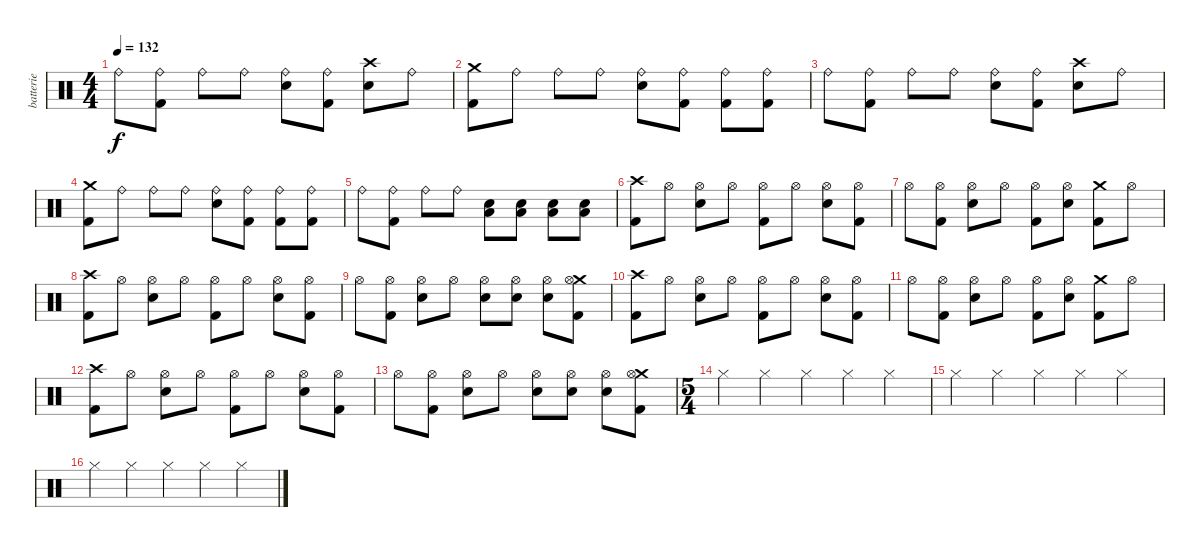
\track ("batterie" "batterie") {instrument percussion}
\staff {score}
\articulation defaults
\ts (4 4)
\tempo 132
\clef neutral
\ks c "Ride (bell)".8{dy f}
("Kick (hit) 2" "Ride (bell)").8 "Ride (bell)".8 "Ride (bell)".8 ("Electric Snare (hit)" "Ride (bell)").8 ("Kick (hit) 2" "Ride (bell)").8 ("Crash high (hit)" "Electric Snare (hit)").8 "Ride (bell)".8 |
("Crash medium (hit)" "Kick (hit) 2").8 "Ride (bell)".8 "Ride (bell)".8 "Ride (bell)".8 ("Electric Snare (hit)" "Ride (bell)").8 ("Kick (hit) 2" "Ride (bell)").8 ("Kick (hit) 2" "Ride (bell)").8 ("Kick (hit) 2" "Ride (bell)").8 |
"Ride (bell)".8 ("Kick (hit) 2" "Ride (bell)").8 "Ride (bell)".8 "Ride (bell)".8 ("Electric Snare (hit)" "Ride (bell)").8 ("Kick (hit) 2" "Ride (bell)").8 ("Crash high (hit)" "Electric Snare (hit)").8 "Ride (bell)".8 |
("Crash medium (hit)" "Kick (hit) 2").8 "Ride (bell)".8 "Ride (bell)".8 "Ride (bell)".8 ("Electric Snare (hit)" "Ride (bell)").8 ("Kick (hit) 2" "Ride (bell)").8 ("Kick (hit) 2" "Ride (bell)").8 ("Kick (hit) 2" "Ride (bell)").8 |
"Ride (bell)".8 ("Kick (hit) 2" "Ride (bell)").8 "Ride (bell)".8 "Ride (bell)".8 ("Low Tom (hit)" "Electric Snare (hit)").8 ("Low Tom (hit)" "Electric Snare (hit)").8 ("Low Tom (hit)" "Electric Snare (hit)").8 ("Low Tom (hit)" "Electric Snare (hit)").8 |
("Crash high (hit)" "Kick (hit) 2").8 "Hi-Hat (open)".8 ("Electric Snare (hit)" "Hi-Hat (open)").8 "Hi-Hat (open)".8 ("Kick (hit) 2" "Hi-Hat (open)").8 "Hi-Hat (open)".8 ("Electric Snare (hit)" "Hi-Hat (open)").8 ("Kick (hit) 2" "Hi-Hat (open)").8 |
"Hi-Hat (open)".8 ("Kick (hit) 2" "Hi-Hat (open)").8 ("Electric Snare (hit)" "Hi-Hat (open)").8 "Hi-Hat (open)".8 ("Kick (hit) 2" "Hi-Hat (open)").8 ("Electric Snare (hit)" "Hi-Hat (open)").8 ("Crash medium (hit)" "Kick (hit) 2").8 "Hi-Hat (open)".8 |
("Crash high (hit)" "Kick (hit) 2").8 "Hi-Hat (open)".8 ("Electric Snare (hit)" "Hi-Hat (open)").8 "Hi-Hat (open)".8 ("Kick (hit) 2" "Hi-Hat (open)").8 "Hi-Hat (open)".8 ("Electric Snare (hit)" "Hi-Hat (open)").8 ("Kick (hit) 2" "Hi-Hat (open)").8 |
"Hi-Hat (open)".8 ("Kick (hit) 2" "Hi-Hat (open)").8 ("Electric Snare (hit)" "Hi-Hat (open)").8 "Hi-Hat (open)".8 ("Electric Snare (hit)" "Hi-Hat (open)").8 ("Electric Snare (hit)" "Hi-Hat (open)").8 ("Electric Snare (hit)" "Hi-Hat (open)").8 ("Crash medium (hit)" "Kick (hit) 2" "Hi-Hat (open)").8 |
("Crash high (hit)" "Kick (hit) 2").8 "Hi-Hat (open)".8 ("Electric Snare (hit)" "Hi-Hat (open)").8 "Hi-Hat (open)".8 ("Kick (hit) 2" "Hi-Hat (open)").8 "Hi-Hat (open)".8 ("Electric Snare (hit)" "Hi-Hat (open)").8 ("Kick (hit) 2" "Hi-Hat (open)").8 |
"Hi-Hat (open)".8 ("Kick (hit) 2" "Hi-Hat (open)").8 ("Electric Snare (hit)" "Hi-Hat (open)").8 "Hi-Hat (open)".8 ("Kick (hit) 2" "Hi-Hat (open)").8 ("Electric Snare (hit)" "Hi-Hat (open)").8 ("Crash medium (hit)" "Kick (hit) 2").8 "Hi-Hat (open)".8 |
("Crash high (hit)" "Kick (hit) 2").8 "Hi-Hat (open)".8 ("Electric Snare (hit)" "Hi-Hat (open)").8 "Hi-Hat (open)".8 ("Kick (hit) 2" "Hi-Hat (open)").8 "Hi-Hat (open)".8 ("Electric Snare (hit)" "Hi-Hat (open)").8 ("Kick (hit) 2" "Hi-Hat (open)").8 |
"Hi-Hat (open)".8 ("Kick (hit) 2" "Hi-Hat (open)").8 ("Electric Snare (hit)" "Hi-Hat (open)").8 "Hi-Hat (open)".8 ("Electric Snare (hit)" "Hi-Hat (open)").8 ("Electric Snare (hit)" "Hi-Hat (open)").8 ("Electric Snare (hit)" "Hi-Hat (open)").8 ("Crash medium (hit)" "Kick (hit) 2" "Hi-Hat (open)").8 |
\ts (5 4)
"Hi-Hat (closed)".4 "Hi-Hat (closed)".4 "Hi-Hat (closed)".4 "Hi-Hat (closed)".4 "Hi-Hat (closed)".4 |
"Hi-Hat (closed)".4 "Hi-Hat (closed)".4 "Hi-Hat (closed)".4 "Hi-Hat (closed)".4 "Hi-Hat (closed)".4 |
"Hi-Hat (closed)".4 "Hi-Hat (closed)".4 "Hi-Hat (closed)".4 "Hi-Hat (closed)".4 "Hi-Hat (closed)".4
